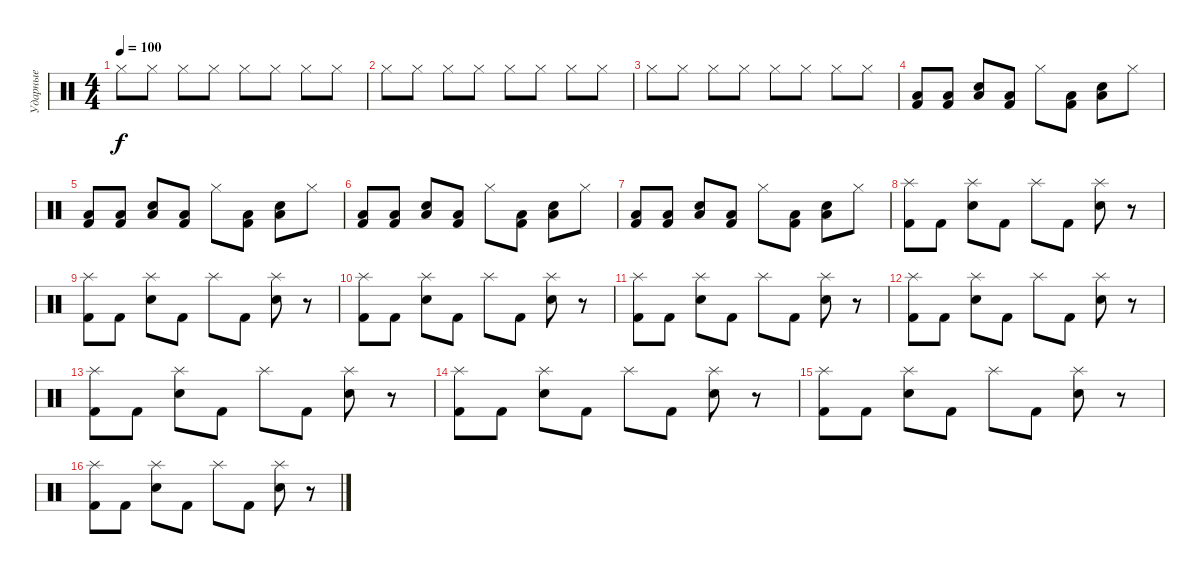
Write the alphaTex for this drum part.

\track ("Ударные" "Ударные") {instrument percussion}
\staff {score}
\articulation defaults
\ts (4 4)
\tempo 100
\clef neutral
\ks c "Hi-Hat (closed)".8{dy f} "Hi-Hat (closed)".8 "Hi-Hat (closed)".8 "Hi-Hat (closed)".8 "Hi-Hat (closed)".8 "Hi-Hat (closed)".8 "Hi-Hat (closed)".8 "Hi-Hat (closed)".8
|
"Hi-Hat (closed)".8 "Hi-Hat (closed)".8 "Hi-Hat (closed)".8 "Hi-Hat (closed)".8 "Hi-Hat (closed)".8 "Hi-Hat (closed)".8 "Hi-Hat (closed)".8 "Hi-Hat (closed)".8 |
"Hi-Hat (closed)".8 "Hi-Hat (closed)".8 "Hi-Hat (closed)".8 "Hi-Hat (closed)".8 "Hi-Hat (closed)".8 "Hi-Hat (closed)".8 "Hi-Hat (closed)".8 "Hi-Hat (closed)".8 |
("Kick (hit) 2" "Low Floor Tom (hit)").8 ("Kick (hit) 2" "Low Floor Tom (hit)").8 ("Snare (hit) 2" "Low Floor Tom (hit)").8 ("Kick (hit) 2" "Low Floor Tom (hit)").8 "Hi-Hat (closed)".8 ("Kick (hit) 2" "Low Floor Tom (hit)").8 ("Snare (hit) 2" "Low Floor Tom (hit)").8 "Hi-Hat (closed)".8 |
("Kick (hit) 2" "Low Floor Tom (hit)").8 ("Kick (hit) 2" "Low Floor Tom (hit)").8 ("Snare (hit) 2" "Low Floor Tom (hit)").8 ("Kick (hit) 2" "Low Floor Tom (hit)").8 "Hi-Hat (closed)".8 ("Kick (hit) 2" "Low Floor Tom (hit)").8 ("Snare (hit) 2" "Low Floor Tom (hit)").8 "Hi-Hat (closed)".8 |
("Kick (hit) 2" "Low Floor Tom (hit)").8 ("Kick (hit) 2" "Low Floor Tom (hit)").8 ("Snare (hit) 2" "Low Floor Tom (hit)").8 ("Kick (hit) 2" "Low Floor Tom (hit)").8 "Hi-Hat (closed)".8 ("Kick (hit) 2" "Low Floor Tom (hit)").8 ("Snare (hit) 2" "Low Floor Tom (hit)").8 "Hi-Hat (closed)".8 |
("Kick (hit) 2" "Low Floor Tom (hit)").8 ("Kick (hit) 2" "Low Floor Tom (hit)").8 ("Snare (hit) 2" "Low Floor Tom (hit)").8 ("Kick (hit) 2" "Low Floor Tom (hit)").8 "Hi-Hat (closed)".8 ("Kick (hit) 2" "Low Floor Tom (hit)").8 ("Snare (hit) 2" "Low Floor Tom (hit)").8 "Hi-Hat (closed)".8 |
("Kick (hit) 2" "Splash (hit)").8 "Kick (hit) 2".8 ("Snare (hit) 2" "Splash (hit)").8 "Kick (hit) 2".8 "Splash (hit)".8 "Kick (hit) 2".8 ("Snare (hit) 2" "Splash (hit)").8 r.8 |
("Kick (hit) 2" "Splash (hit)").8 "Kick (hit) 2".8 ("Snare (hit) 2" "Splash (hit)").8 "Kick (hit) 2".8 "Splash (hit)".8 "Kick (hit) 2".8 ("Snare (hit) 2" "Splash (hit)").8 r.8 |
("Kick (hit) 2" "Splash (hit)").8 "Kick (hit) 2".8 ("Snare (hit) 2" "Splash (hit)").8 "Kick (hit) 2".8 "Splash (hit)".8 "Kick (hit) 2".8 ("Snare (hit) 2" "Splash (hit)").8 r.8 |
("Kick (hit) 2" "Splash (hit)").8 "Kick (hit) 2".8 ("Snare (hit) 2" "Splash (hit)").8 "Kick (hit) 2".8 "Splash (hit)".8 "Kick (hit) 2".8 ("Snare (hit) 2" "Splash (hit)").8 r.8 |
("Kick (hit) 2" "Splash (hit)").8 "Kick (hit) 2".8 ("Snare (hit) 2" "Splash (hit)").8 "Kick (hit) 2".8 "Splash (hit)".8 "Kick (hit) 2".8 ("Snare (hit) 2" "Splash (hit)").8 r.8 |
("Kick (hit) 2" "Splash (hit)").8 "Kick (hit) 2".8 ("Snare (hit) 2" "Splash (hit)").8 "Kick (hit) 2".8 "Splash (hit)".8 "Kick (hit) 2".8 ("Snare (hit) 2" "Splash (hit)").8 r.8 |
("Kick (hit) 2" "Splash (hit)").8 "Kick (hit) 2".8 ("Snare (hit) 2" "Splash (hit)").8 "Kick (hit) 2".8 "Splash (hit)".8 "Kick (hit) 2".8 ("Snare (hit) 2" "Splash (hit)").8 r.8 |
("Kick (hit) 2" "Splash (hit)").8 "Kick (hit) 2".8 ("Snare (hit) 2" "Splash (hit)").8 "Kick (hit) 2".8 "Splash (hit)".8 "Kick (hit) 2".8 ("Snare (hit) 2" "Splash (hit)").8 r.8 |
("Kick (hit) 2" "Splash (hit)").8 "Kick (hit) 2".8 ("Snare (hit) 2" "Splash (hit)").8 "Kick (hit) 2".8 "Splash (hit)".8 "Kick (hit) 2".8 ("Snare (hit) 2" "Splash (hit)").8 r.8
